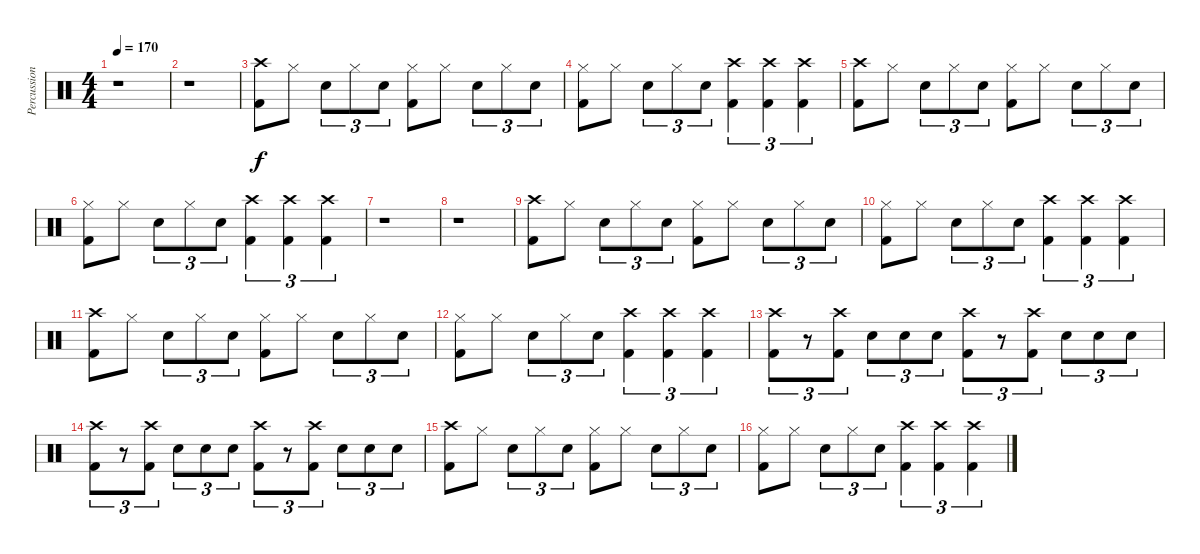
\track ("Percussion" "Percussion") {instrument percussion}
\staff {score}
\articulation defaults
\ts (4 4)
\tempo 170
\clef neutral
\ks c
r.1{dy f} |
r.1 |
("Crash high (hit)" "Kick (hit) 2").8 "Hi-Hat (closed)".8 "Snare (hit) 2".8{tu (3 2)} "Hi-Hat (closed)".8{tu (3 2)} "Snare (hit) 2".8{tu (3 2)} ("Hi-Hat (closed)" "Kick (hit) 2").8 "Hi-Hat (closed)".8 "Snare (hit) 2".8{tu (3 2)} "Hi-Hat (closed)".8{tu (3 2)} "Snare (hit) 2".8{tu (3 2)} |
("Hi-Hat (closed)" "Kick (hit) 2").8 "Hi-Hat (closed)".8 "Snare (hit) 2".8{tu (3 2)} "Hi-Hat (closed)".8{tu (3 2)} "Snare (hit) 2".8{tu (3 2)} ("Crash high (hit)" "Kick (hit) 2").4{tu (3 2)} ("Crash high (hit)" "Kick (hit) 2").4{tu (3 2)} ("Crash high (hit)" "Kick (hit) 2").4{tu (3 2)} |
("Crash high (hit)" "Kick (hit) 2").8 "Hi-Hat (closed)".8 "Snare (hit) 2".8{tu (3 2)} "Hi-Hat (closed)".8{tu (3 2)} "Snare (hit) 2".8{tu (3 2)} ("Hi-Hat (closed)" "Kick (hit) 2").8 "Hi-Hat (closed)".8 "Snare (hit) 2".8{tu (3 2)} "Hi-Hat (closed)".8{tu (3 2)} "Snare (hit) 2".8{tu (3 2)} |
("Hi-Hat (closed)" "Kick (hit) 2").8 "Hi-Hat (closed)".8 "Snare (hit) 2".8{tu (3 2)} "Hi-Hat (closed)".8{tu (3 2)} "Snare (hit) 2".8{tu (3 2)} ("Crash high (hit)" "Kick (hit) 2").4{tu (3 2)} ("Crash high (hit)" "Kick (hit) 2").4{tu (3 2)} ("Crash high (hit)" "Kick (hit) 2").4{tu (3 2)} |
r.1 |
r.1 |
("Crash high (hit)" "Kick (hit) 2").8 "Hi-Hat (closed)".8 "Snare (hit) 2".8{tu (3 2)} "Hi-Hat (closed)".8{tu (3 2)} "Snare (hit) 2".8{tu (3 2)} ("Hi-Hat (closed)" "Kick (hit) 2").8 "Hi-Hat (closed)".8 "Snare (hit) 2".8{tu (3 2)} "Hi-Hat (closed)".8{tu (3 2)} "Snare (hit) 2".8{tu (3 2)} |
("Hi-Hat (closed)" "Kick (hit) 2").8 "Hi-Hat (closed)".8 "Snare (hit) 2".8{tu (3 2)} "Hi-Hat (closed)".8{tu (3 2)} "Snare (hit) 2".8{tu (3 2)} ("Crash high (hit)" "Kick (hit) 2").4{tu (3 2)} ("Crash high (hit)" "Kick (hit) 2").4{tu (3 2)} ("Crash high (hit)" "Kick (hit) 2").4{tu (3 2)} |
("Crash high (hit)" "Kick (hit) 2").8 "Hi-Hat (closed)".8 "Snare (hit) 2".8{tu (3 2)} "Hi-Hat (closed)".8{tu (3 2)} "Snare (hit) 2".8{tu (3 2)} ("Hi-Hat (closed)" "Kick (hit) 2").8 "Hi-Hat (closed)".8 "Snare (hit) 2".8{tu (3 2)} "Hi-Hat (closed)".8{tu (3 2)} "Snare (hit) 2".8{tu (3 2)} |
("Hi-Hat (closed)" "Kick (hit) 2").8 "Hi-Hat (closed)".8 "Snare (hit) 2".8{tu (3 2)} "Hi-Hat (closed)".8{tu (3 2)} "Snare (hit) 2".8{tu (3 2)} ("Crash high (hit)" "Kick (hit) 2").4{tu (3 2)} ("Crash high (hit)" "Kick (hit) 2").4{tu (3 2)} ("Crash high (hit)" "Kick (hit) 2").4{tu (3 2)} |
("Crash high (hit)" "Kick (hit) 2").8{tu (3 2)} r.8{tu (3 2)} ("Crash high (hit)" "Kick (hit) 2").8{tu (3 2)} "Snare (hit) 2".8{tu (3 2)} "Snare (hit) 2".8{tu (3 2)} "Snare (hit) 2".8{tu (3 2)} ("Crash high (hit)" "Kick (hit) 2").8{tu (3 2)} r.8{tu (3 2)} ("Crash high (hit)" "Kick (hit) 2").8{tu (3 2)} "Snare (hit) 2".8{tu (3 2)} "Snare (hit) 2".8{tu (3 2)} "Snare (hit) 2".8{tu (3 2)} |
("Crash high (hit)" "Kick (hit) 2").8{tu (3 2)} r.8{tu (3 2)} ("Crash high (hit)" "Kick (hit) 2").8{tu (3 2)} "Snare (hit) 2".8{tu (3 2)} "Snare (hit) 2".8{tu (3 2)} "Snare (hit) 2".8{tu (3 2)} ("Crash high (hit)" "Kick (hit) 2").8{tu (3 2)} r.8{tu (3 2)} ("Crash high (hit)" "Kick (hit) 2").8{tu (3 2)} "Snare (hit) 2".8{tu (3 2)} "Snare (hit) 2".8{tu (3 2)} "Snare (hit) 2".8{tu (3 2)} |
("Crash high (hit)" "Kick (hit) 2").8 "Hi-Hat (closed)".8 "Snare (hit) 2".8{tu (3 2)} "Hi-Hat (closed)".8{tu (3 2)} "Snare (hit) 2".8{tu (3 2)} ("Hi-Hat (closed)" "Kick (hit) 2").8 "Hi-Hat (closed)".8 "Snare (hit) 2".8{tu (3 2)} "Hi-Hat (closed)".8{tu (3 2)} "Snare (hit) 2".8{tu (3 2)} |
("Hi-Hat (closed)" "Kick (hit) 2").8 "Hi-Hat (closed)".8 "Snare (hit) 2".8{tu (3 2)} "Hi-Hat (closed)".8{tu (3 2)} "Snare (hit) 2".8{tu (3 2)} ("Crash high (hit)" "Kick (hit) 2").4{tu (3 2)} ("Crash high (hit)" "Kick (hit) 2").4{tu (3 2)} ("Crash high (hit)" "Kick (hit) 2").4{tu (3 2)}
